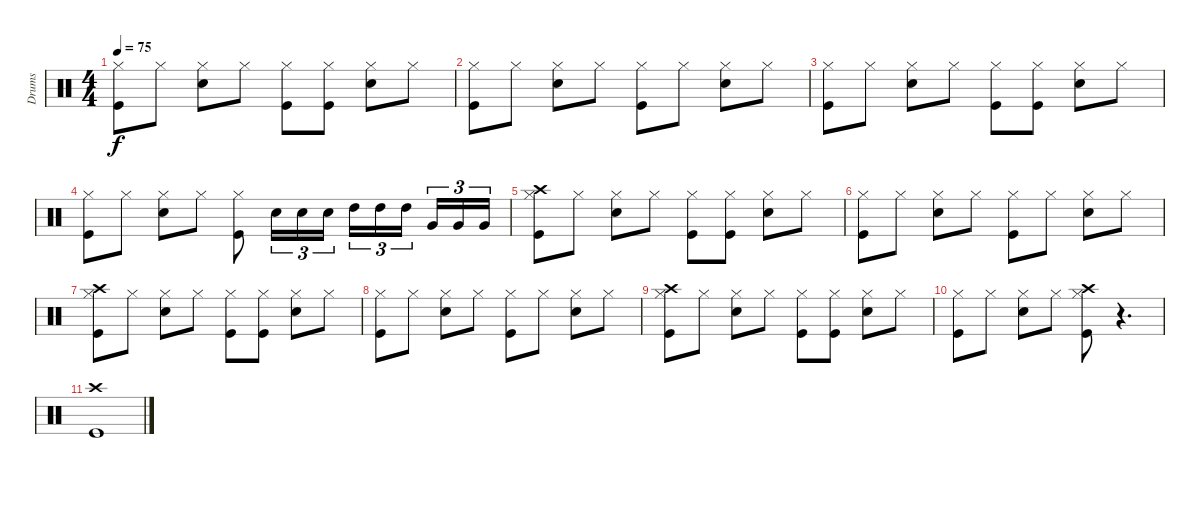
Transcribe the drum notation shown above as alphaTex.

\track ("Drums" "Drums") {instrument percussion}
\staff {score}
\articulation defaults
\ts (4 4)
\tempo 75
\clef neutral
\ks c
("Hi-Hat (closed)" "Kick (hit)").8{dy f} "Hi-Hat (closed)".8 ("Hi-Hat (closed)" "Snare (hit) 2").8 "Hi-Hat (closed)".8 ("Hi-Hat (closed)" "Kick (hit)").8 ("Hi-Hat (closed)" "Kick (hit)").8 ("Hi-Hat (closed)" "Snare (hit) 2").8 "Hi-Hat (closed)".8 |
("Hi-Hat (closed)" "Kick (hit)").8 "Hi-Hat (closed)".8 ("Hi-Hat (closed)" "Snare (hit) 2").8 "Hi-Hat (closed)".8 ("Hi-Hat (closed)" "Kick (hit)").8 "Hi-Hat (closed)".8 ("Hi-Hat (closed)" "Snare (hit) 2").8 "Hi-Hat (closed)".8 |
("Hi-Hat (closed)" "Kick (hit)").8 "Hi-Hat (closed)".8 ("Hi-Hat (closed)" "Snare (hit) 2").8 "Hi-Hat (closed)".8 ("Hi-Hat (closed)" "Kick (hit)").8 ("Hi-Hat (closed)" "Kick (hit)").8 ("Hi-Hat (closed)" "Snare (hit) 2").8 "Hi-Hat (closed)".8 |
("Hi-Hat (closed)" "Kick (hit)").8 "Hi-Hat (closed)".8 ("Hi-Hat (closed)" "Snare (hit) 2").8 "Hi-Hat (closed)".8 ("Hi-Hat (closed)" "Kick (hit)").8 "Snare (hit) 2".16{tu (3 2)} "Snare (hit) 2".16{tu (3 2)} "Snare (hit) 2".16{tu (3 2)} "High Tom (hit)".16{tu (3 2)} "High Tom (hit)".16{tu (3 2)} "High Tom (hit)".16{tu (3 2) beam splitsecondary} "Very Low Tom (hit)".16{tu (3 2)} "Very Low Tom (hit)".16{tu (3 2)} "Very Low Tom (hit)".16{tu (3 2)} |
("Hi-Hat (closed)" "Crash high (hit)" "Kick (hit)").8 "Hi-Hat (closed)".8 ("Hi-Hat (closed)" "Snare (hit) 2").8 "Hi-Hat (closed)".8 ("Hi-Hat (closed)" "Kick (hit)").8 ("Hi-Hat (closed)" "Kick (hit)").8 ("Hi-Hat (closed)" "Snare (hit) 2").8 "Hi-Hat (closed)".8 |
("Hi-Hat (closed)" "Kick (hit)").8 "Hi-Hat (closed)".8 ("Hi-Hat (closed)" "Snare (hit) 2").8 "Hi-Hat (closed)".8 ("Hi-Hat (closed)" "Kick (hit)").8 "Hi-Hat (closed)".8 ("Hi-Hat (closed)" "Snare (hit) 2").8 "Hi-Hat (closed)".8 |
("Crash high (hit)" "Hi-Hat (closed)" "Kick (hit)").8 "Hi-Hat (closed)".8 ("Hi-Hat (closed)" "Snare (hit) 2").8 "Hi-Hat (closed)".8 ("Hi-Hat (closed)" "Kick (hit)").8 ("Hi-Hat (closed)" "Kick (hit)").8 ("Hi-Hat (closed)" "Snare (hit) 2").8 "Hi-Hat (closed)".8 |
("Hi-Hat (closed)" "Kick (hit)").8 "Hi-Hat (closed)".8 ("Hi-Hat (closed)" "Snare (hit) 2").8 "Hi-Hat (closed)".8 ("Hi-Hat (closed)" "Kick (hit)").8 "Hi-Hat (closed)".8 ("Hi-Hat (closed)" "Snare (hit) 2").8 "Hi-Hat (closed)".8 |
("Crash high (hit)" "Hi-Hat (closed)" "Kick (hit)").8 "Hi-Hat (closed)".8 ("Hi-Hat (closed)" "Snare (hit) 2").8 "Hi-Hat (closed)".8 ("Hi-Hat (closed)" "Kick (hit)").8 ("Hi-Hat (closed)" "Kick (hit)").8 ("Hi-Hat (closed)" "Snare (hit) 2").8 "Hi-Hat (closed)".8 |
("Hi-Hat (closed)" "Kick (hit)").8 "Hi-Hat (closed)".8 ("Hi-Hat (closed)" "Snare (hit) 2").8 "Hi-Hat (closed)".8 ("Crash high (hit)" "Hi-Hat (closed)" "Kick (hit)").8 r.4{d} |
("Kick (hit)" "Crash high (hit)").1
